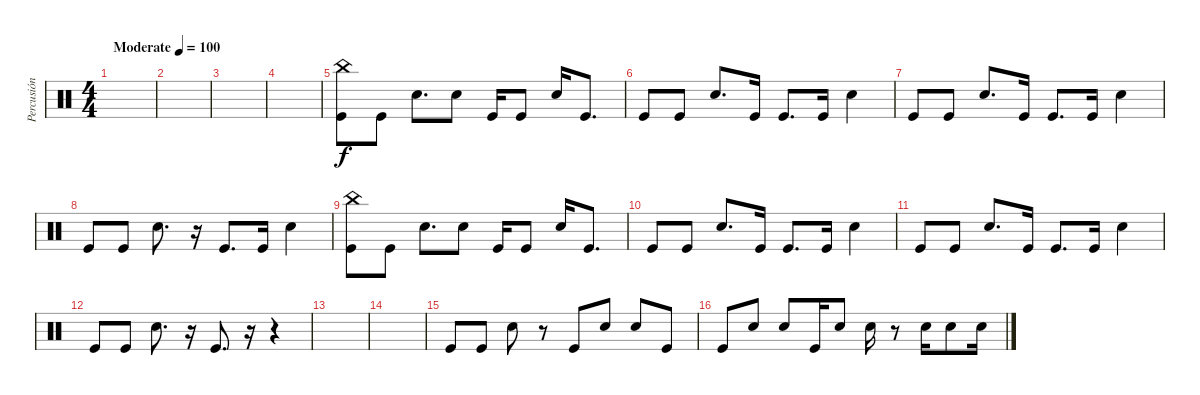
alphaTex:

\track ("Percusión" "Percusión") {instrument percussion}
\staff {score}
\articulation defaults
\ts (4 4)
\tempo (100 "Moderate")
\clef neutral
\ks c
|
|
|
|
("Kick (hit)" "China (hit)").8 "Kick (hit)".8 "Electric Snare (hit)".8{d} "Electric Snare (hit)".8 "Kick (hit)".16 "Kick (hit)".8 "Electric Snare (hit)".16 "Kick (hit)".8{d} |
"Kick (hit)".8 "Kick (hit)".8 "Electric Snare (hit)".8{d} "Kick (hit)".16 "Kick (hit)".8{d} "Kick (hit)".16 "Electric Snare (hit)".4 |
"Kick (hit)".8 "Kick (hit)".8 "Electric Snare (hit)".8{d} "Kick (hit)".16 "Kick (hit)".8{d} "Kick (hit)".16 "Electric Snare (hit)".4 |
"Kick (hit)".8 "Kick (hit)".8 "Electric Snare (hit)".8{d} r.16 "Kick (hit)".8{d} "Kick (hit)".16 "Electric Snare (hit)".4 |
("Kick (hit)" "China (hit)").8 "Kick (hit)".8 "Electric Snare (hit)".8{d} "Electric Snare (hit)".8 "Kick (hit)".16 "Kick (hit)".8 "Electric Snare (hit)".16 "Kick (hit)".8{d} |
"Kick (hit)".8 "Kick (hit)".8 "Electric Snare (hit)".8{d} "Kick (hit)".16 "Kick (hit)".8{d} "Kick (hit)".16 "Electric Snare (hit)".4 |
"Kick (hit)".8 "Kick (hit)".8 "Electric Snare (hit)".8{d} "Kick (hit)".16 "Kick (hit)".8{d} "Kick (hit)".16 "Electric Snare (hit)".4 |
"Kick (hit)".8 "Kick (hit)".8 "Electric Snare (hit)".8{d} r.16 "Kick (hit)".8{d} r.16 r.4 |
|
|
"Kick (hit)".8 "Kick (hit)".8 "Electric Snare (hit)".8 r.8 "Kick (hit)".8 "Electric Snare (hit)".8 "Electric Snare (hit)".8 "Kick (hit)".8 |
"Kick (hit)".8 "Electric Snare (hit)".8 "Electric Snare (hit)".8 "Kick (hit)".16 "Electric Snare (hit)".8 "Electric Snare (hit)".16 r.8 "Electric Snare (hit)".16 "Electric Snare (hit)".8 "Electric Snare (hit)".16
